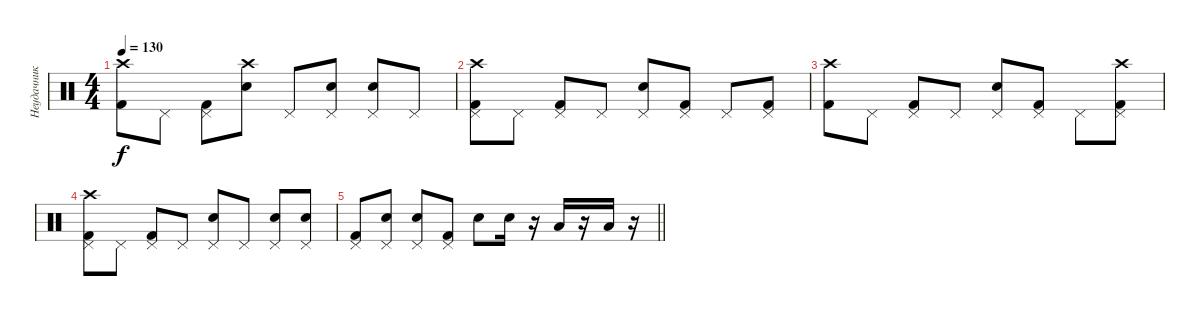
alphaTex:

\track ("Неудачник" "Неудачник") {instrument percussion}
\staff {score}
\articulation defaults
\ts (4 4)
\tempo 130
\clef neutral
\ks c
("Crash high (hit)" "Kick (hit) 2").8{dy f} "Pedal Hi-Hat (hit)".8 ("Pedal Hi-Hat (hit)" "Kick (hit) 2").8 ("Crash high (hit)" "Electric Snare (hit)").8 "Pedal Hi-Hat (hit)".8 ("Pedal Hi-Hat (hit)" "Electric Snare (hit)").8 ("Pedal Hi-Hat (hit)" "Electric Snare (hit)").8 "Pedal Hi-Hat (hit)".8 |
("Crash high (hit)" "Pedal Hi-Hat (hit)" "Kick (hit) 2").8 "Pedal Hi-Hat (hit)".8 ("Pedal Hi-Hat (hit)" "Kick (hit) 2").8 "Pedal Hi-Hat (hit)".8 ("Pedal Hi-Hat (hit)" "Electric Snare (hit)").8 ("Pedal Hi-Hat (hit)" "Kick (hit) 2").8 "Pedal Hi-Hat (hit)".8 ("Pedal Hi-Hat (hit)" "Kick (hit) 2").8 |
("Crash high (hit)" "Kick (hit) 2").8 "Pedal Hi-Hat (hit)".8 ("Pedal Hi-Hat (hit)" "Kick (hit) 2").8 "Pedal Hi-Hat (hit)".8 ("Pedal Hi-Hat (hit)" "Electric Snare (hit)").8 ("Pedal Hi-Hat (hit)" "Kick (hit) 2").8 "Pedal Hi-Hat (hit)".8 ("Crash high (hit)" "Pedal Hi-Hat (hit)" "Kick (hit) 2").8 |
("Crash high (hit)" "Pedal Hi-Hat (hit)" "Kick (hit) 2").8 "Pedal Hi-Hat (hit)".8 ("Pedal Hi-Hat (hit)" "Kick (hit) 2").8 "Pedal Hi-Hat (hit)".8 ("Pedal Hi-Hat (hit)" "Electric Snare (hit)").8 "Pedal Hi-Hat (hit)".8 ("Pedal Hi-Hat (hit)" "Electric Snare (hit)").8 ("Pedal Hi-Hat (hit)" "Electric Snare (hit)").8 |
\barLineRight lightlight
("Pedal Hi-Hat (hit)" "Kick (hit) 2").8 ("Pedal Hi-Hat (hit)" "Electric Snare (hit)").8 ("Pedal Hi-Hat (hit)" "Electric Snare (hit)").8 ("Pedal Hi-Hat (hit)" "Kick (hit) 2").8 "Electric Snare (hit)".8 "Electric Snare (hit)".16 r.16 "Low Floor Tom (hit)".16 r.16 "Low Tom (hit)".16 r.16
